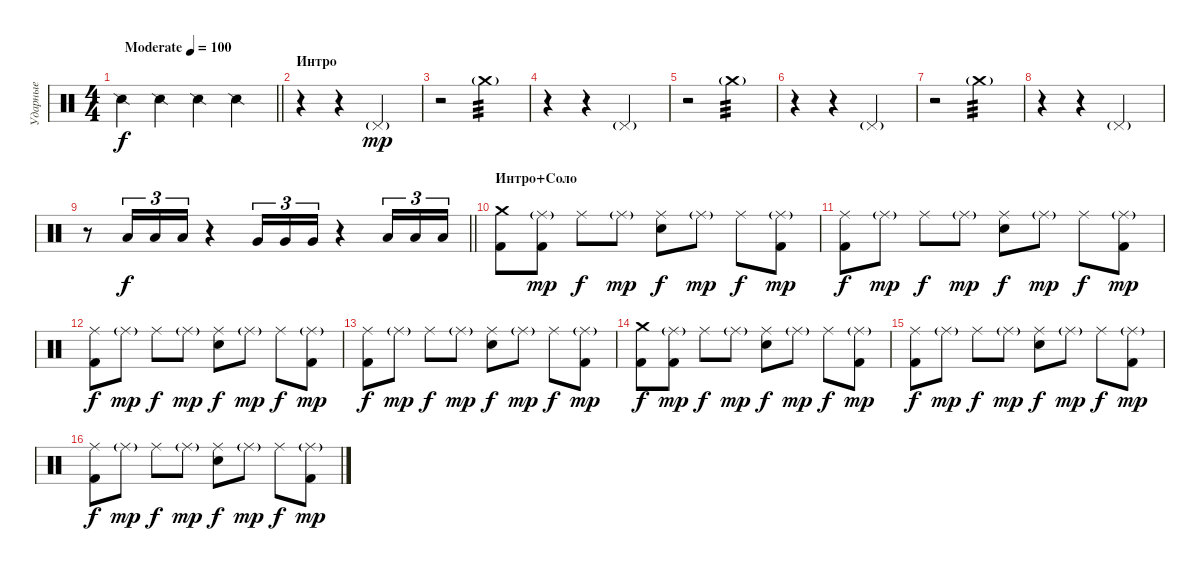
\track ("Ударные" "Ударные") {instrument percussion}
\staff {score}
\articulation defaults
\ts (4 4)
\tempo (100 "Moderate")
\clef neutral
\barLineRight lightlight
\ks c "Snare (side stick) 2".4{dy f} "Snare (side stick) 2".4 "Snare (side stick) 2".4 "Snare (side stick) 2".4
|
\section ("" "Интро")
r.4{volume 0} r.4 "Pedal Hi-Hat (hit)"{g}.2{dy mp} |
r.2 "Crash medium (hit)"{g}.2{tp 3 volume 13} |
r.4 r.4 "Pedal Hi-Hat (hit)"{g}.2 |
r.2{volume 0} "Crash medium (hit)"{g}.2{tp 3 volume 13} |
r.4 r.4 "Pedal Hi-Hat (hit)"{g}.2 |
r.2{volume 1} "Crash medium (hit)"{g}.2{tp 3 volume 13} |
r.4 r.4 "Pedal Hi-Hat (hit)"{g}.2 |
\barLineRight lightlight
r.8 "Low Tom (hit)".16{tu (3 2) dy f} "Low Tom (hit)".16{tu (3 2)} "Low Tom (hit)".16{tu (3 2)} r.4 "Very Low Tom (hit)".16{tu (3 2)} "Very Low Tom (hit)".16{tu (3 2)} "Very Low Tom (hit)".16{tu (3 2)} r.4 "Low Floor Tom (hit)".16{tu (3 2)} "Low Floor Tom (hit)".16{tu (3 2)} "Low Floor Tom (hit)".16{tu (3 2)} |
\section ("" "Интро+Соло")
("Crash medium (hit)" "Kick (hit) 2").8 ("Ride (middle)"{g} "Kick (hit) 2").8{dy mp} "Ride (middle)".8{dy f} "Ride (middle)"{g}.8{dy mp} ("Ride (middle)" "Snare (hit) 2").8{dy f} "Ride (middle)"{g}.8{dy mp} "Ride (middle)".8{dy f} ("Ride (middle)"{g} "Kick (hit) 2").8{dy mp} |
("Ride (middle)" "Kick (hit) 2").8{dy f} "Ride (middle)"{g}.8{dy mp} "Ride (middle)".8{dy f} "Ride (middle)"{g}.8{dy mp} ("Ride (middle)" "Snare (hit) 2").8{dy f} "Ride (middle)"{g}.8{dy mp} "Ride (middle)".8{dy f} ("Ride (middle)"{g} "Kick (hit) 2").8{dy mp} |
("Ride (middle)" "Kick (hit) 2").8{dy f} "Ride (middle)"{g}.8{dy mp} "Ride (middle)".8{dy f} "Ride (middle)"{g}.8{dy mp} ("Ride (middle)" "Snare (hit) 2").8{dy f} "Ride (middle)"{g}.8{dy mp} "Ride (middle)".8{dy f} ("Ride (middle)"{g} "Kick (hit) 2").8{dy mp} |
("Ride (middle)" "Kick (hit) 2").8{dy f} "Ride (middle)"{g}.8{dy mp} "Ride (middle)".8{dy f} "Ride (middle)"{g}.8{dy mp} ("Ride (middle)" "Snare (hit) 2").8{dy f} "Ride (middle)"{g}.8{dy mp} "Ride (middle)".8{dy f} ("Ride (middle)"{g} "Kick (hit) 2").8{dy mp} |
("Crash medium (hit)" "Kick (hit) 2").8{dy f} ("Ride (middle)"{g} "Kick (hit) 2").8{dy mp} "Ride (middle)".8{dy f} "Ride (middle)"{g}.8{dy mp} ("Ride (middle)" "Snare (hit) 2").8{dy f} "Ride (middle)"{g}.8{dy mp} "Ride (middle)".8{dy f} ("Ride (middle)"{g} "Kick (hit) 2").8{dy mp} |
("Ride (middle)" "Kick (hit) 2").8{dy f} "Ride (middle)"{g}.8{dy mp} "Ride (middle)".8{dy f} "Ride (middle)"{g}.8{dy mp} ("Ride (middle)" "Snare (hit) 2").8{dy f} "Ride (middle)"{g}.8{dy mp} "Ride (middle)".8{dy f} ("Ride (middle)"{g} "Kick (hit) 2").8{dy mp} |
("Ride (middle)" "Kick (hit) 2").8{dy f} "Ride (middle)"{g}.8{dy mp} "Ride (middle)".8{dy f} "Ride (middle)"{g}.8{dy mp} ("Ride (middle)" "Snare (hit) 2").8{dy f} "Ride (middle)"{g}.8{dy mp} "Ride (middle)".8{dy f} ("Ride (middle)"{g} "Kick (hit) 2").8{dy mp}
